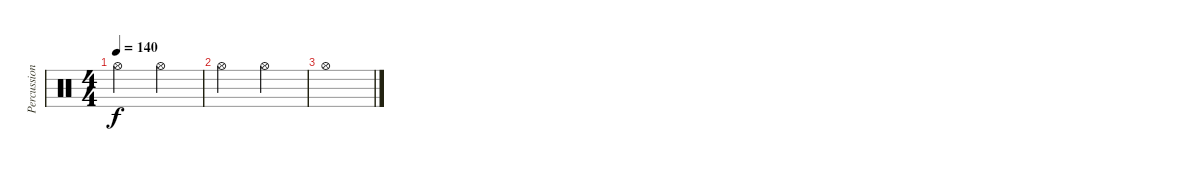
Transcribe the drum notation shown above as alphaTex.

\track ("Percussions" "Percussion") {instrument percussion}
\staff {score}
\articulation defaults
\ts (4 4)
\tempo 140
\clef neutral
\ks c "Hi-Hat (open)".2{dy f} "Hi-Hat (open)".2
|
"Hi-Hat (open)".2 "Hi-Hat (open)".2 |
"Hi-Hat (open)".1
